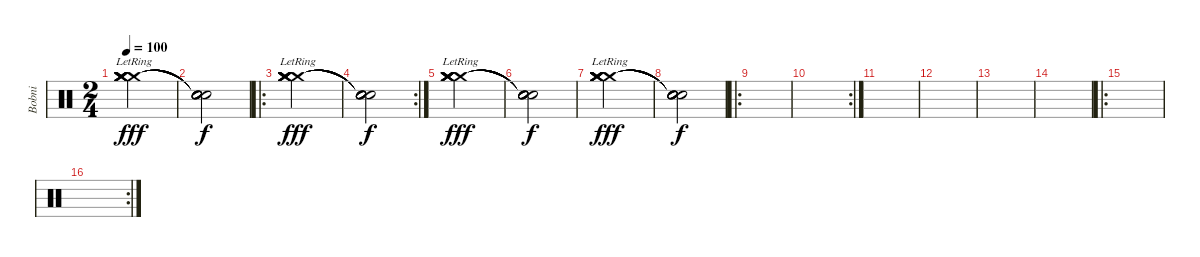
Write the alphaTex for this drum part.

\track ("Bobni" "Bobni") {instrument percussion}
\staff {score}
\articulation defaults
\ts (2 4)
\tempo 100
\clef neutral
\ks c
("Crash medium (hit)"{lr} "Crash medium (hit)"{lr} "Crash medium (hit)"{lr} "Crash medium (hit)"{lr} "Crash medium (hit)"{lr} "Crash medium (hit)"{lr}).2{dy fff} |
("Snare (hit)"{t} "Snare (hit)"{t} "Snare (hit)"{t} "Snare (hit)"{t} "Snare (hit)"{t} "Snare (hit)"{t}).2{dy f} |
\ro
("Crash medium (hit)"{lr} "Crash medium (hit)"{lr} "Crash medium (hit)"{lr} "Crash medium (hit)"{lr} "Crash medium (hit)"{lr} "Crash medium (hit)"{lr}).2{dy fff} |
\rc 2
("Snare (hit)"{t} "Snare (hit)"{t} "Snare (hit)"{t} "Snare (hit)"{t} "Snare (hit)"{t} "Snare (hit)"{t}).2{dy f} |
("Crash medium (hit)"{lr} "Crash medium (hit)"{lr} "Crash medium (hit)"{lr} "Crash medium (hit)"{lr} "Crash medium (hit)"{lr} "Crash medium (hit)"{lr}).2{dy fff} |
("Snare (hit)"{t} "Snare (hit)"{t} "Snare (hit)"{t} "Snare (hit)"{t} "Snare (hit)"{t} "Snare (hit)"{t}).2{dy f} |
("Crash medium (hit)"{lr} "Crash medium (hit)"{lr} "Crash medium (hit)"{lr} "Crash medium (hit)"{lr} "Crash medium (hit)"{lr} "Crash medium (hit)"{lr}).2{dy fff} |
("Snare (hit)"{t} "Snare (hit)"{t} "Snare (hit)"{t} "Snare (hit)"{t} "Snare (hit)"{t} "Snare (hit)"{t}).2{dy f} |
\ro
|
\rc 2
|
|
|
|
|
\ro
|
\rc 2
